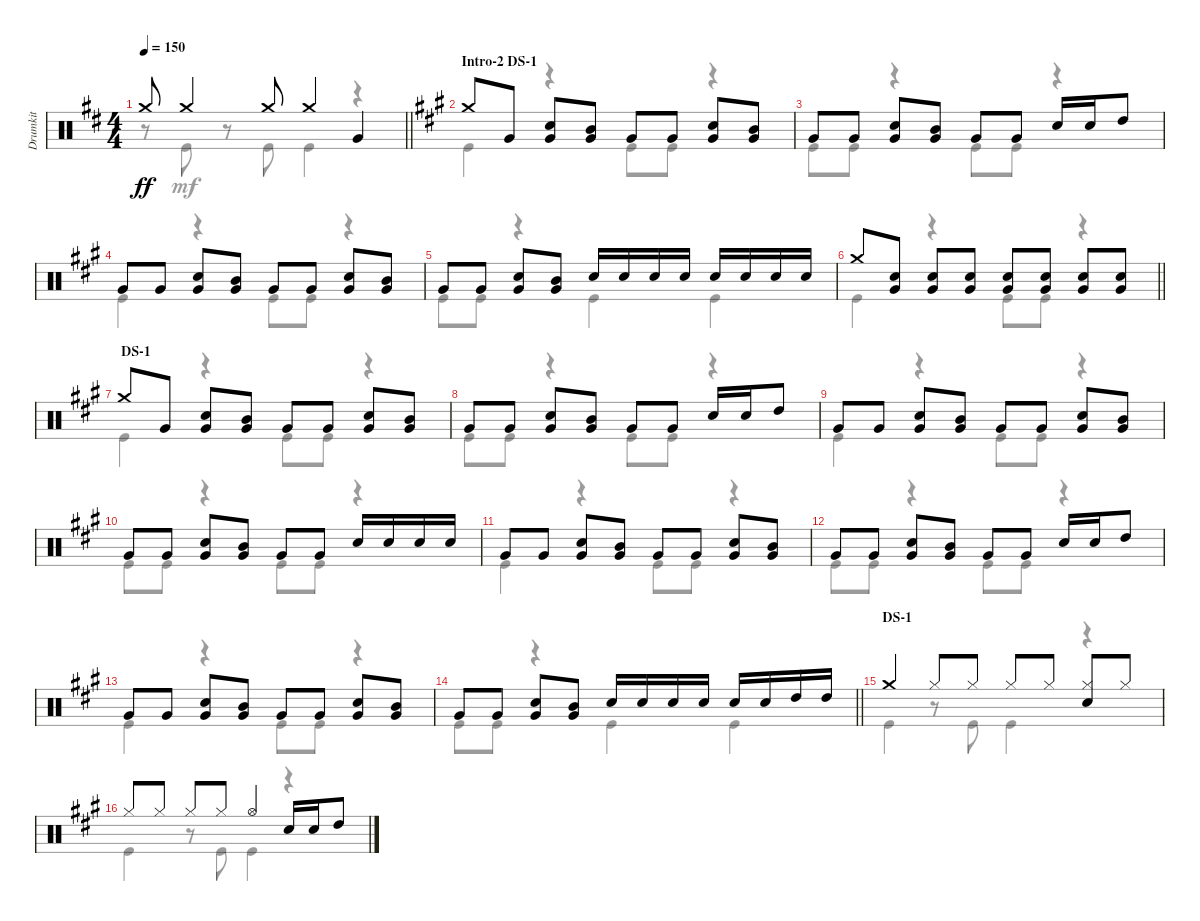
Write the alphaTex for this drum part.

\track ("Drumkit" "Drumkit") {instrument percussion}
\staff {score}
\articulation defaults
\voice
\ts (4 4)
\tempo 150
\clef neutral
\barLineRight lightlight
\ks d "Crash medium (hit)"{t}.8{dy ff} "Crash medium (hit)".4 "Crash medium (hit)".8 "Crash medium (hit)".4 "Very Low Tom (hit)".4
|
\section ("" "Intro-2 DS-1")
\ks a "Crash medium (hit)".8 "Very Low Tom (hit)".8
("Very Low Tom (hit)" "Snare (hit) 2").8 ("Very Low Tom (hit)" "Mid Tom (hit)").8 "Very Low Tom (hit)".8 "Very Low Tom (hit)".8 ("Very Low Tom (hit)" "Snare (hit) 2").8 ("Very Low Tom (hit)" "Mid Tom (hit)").8 |
"Very Low Tom (hit)".8 "Very Low Tom (hit)".8 ("Very Low Tom (hit)" "Snare (hit) 2").8 ("Very Low Tom (hit)" "Mid Tom (hit)").8 "Very Low Tom (hit)".8 "Very Low Tom (hit)".8 "Snare (hit) 2".16 "Snare (hit) 2".16 "High Tom (hit)".8 |
"Very Low Tom (hit)".8 "Very Low Tom (hit)".8 ("Very Low Tom (hit)" "Snare (hit) 2").8 ("Very Low Tom (hit)" "Mid Tom (hit)").8 "Very Low Tom (hit)".8 "Very Low Tom (hit)".8 ("Very Low Tom (hit)" "Snare (hit) 2").8 ("Very Low Tom (hit)" "Mid Tom (hit)").8 |
"Very Low Tom (hit)".8 "Very Low Tom (hit)".8 ("Very Low Tom (hit)" "Snare (hit) 2").8 ("Very Low Tom (hit)" "Mid Tom (hit)").8 "Snare (hit) 2".16 "Snare (hit) 2".16 "Snare (hit) 2".16 "Snare (hit) 2".16 "Snare (hit) 2".16 "Snare (hit) 2".16 "Snare (hit) 2".16 "Snare (hit) 2".16 |
\barLineRight lightlight "Crash medium (hit)".8
("Snare (hit) 2" "Very Low Tom (hit)").8 ("Snare (hit) 2" "Very Low Tom (hit)").8 ("Snare (hit) 2" "Very Low Tom (hit)").8 ("Snare (hit) 2" "Very Low Tom (hit)").8 ("Snare (hit) 2" "Very Low Tom (hit)").8 ("Snare (hit) 2" "Very Low Tom (hit)").8 ("Snare (hit) 2" "Very Low Tom (hit)").8 |
\section ("" " DS-1")
"Crash medium (hit)".8 "Very Low Tom (hit)".8 ("Very Low Tom (hit)" "Snare (hit) 2").8 ("Very Low Tom (hit)" "Mid Tom (hit)").8 "Very Low Tom (hit)".8 "Very Low Tom (hit)".8 ("Very Low Tom (hit)" "Snare (hit) 2").8 ("Very Low Tom (hit)" "Mid Tom (hit)").8 |
"Very Low Tom (hit)".8 "Very Low Tom (hit)".8 ("Very Low Tom (hit)" "Snare (hit) 2").8 ("Very Low Tom (hit)" "Mid Tom (hit)").8 "Very Low Tom (hit)".8 "Very Low Tom (hit)".8 "Snare (hit) 2".16 "Snare (hit) 2".16 "High Tom (hit)".8 |
"Very Low Tom (hit)".8 "Very Low Tom (hit)".8 ("Very Low Tom (hit)" "Snare (hit) 2").8 ("Very Low Tom (hit)" "Mid Tom (hit)").8 "Very Low Tom (hit)".8 "Very Low Tom (hit)".8 ("Very Low Tom (hit)" "Snare (hit) 2").8 ("Very Low Tom (hit)" "Mid Tom (hit)").8 |
"Very Low Tom (hit)".8 "Very Low Tom (hit)".8 ("Very Low Tom (hit)" "Snare (hit) 2").8 ("Very Low Tom (hit)" "Mid Tom (hit)").8 "Very Low Tom (hit)".8 "Very Low Tom (hit)".8 "Snare (hit) 2".16 "Snare (hit) 2".16 "Snare (hit) 2".16 "Snare (hit) 2".16 |
"Very Low Tom (hit)".8 "Very Low Tom (hit)".8 ("Very Low Tom (hit)" "Snare (hit) 2").8 ("Very Low Tom (hit)" "Mid Tom (hit)").8 "Very Low Tom (hit)".8 "Very Low Tom (hit)".8 ("Very Low Tom (hit)" "Snare (hit) 2").8 ("Very Low Tom (hit)" "Mid Tom (hit)").8 |
"Very Low Tom (hit)".8 "Very Low Tom (hit)".8 ("Very Low Tom (hit)" "Snare (hit) 2").8 ("Very Low Tom (hit)" "Mid Tom (hit)").8 "Very Low Tom (hit)".8 "Very Low Tom (hit)".8 "Snare (hit) 2".16 "Snare (hit) 2".16 "High Tom (hit)".8 |
"Very Low Tom (hit)".8 "Very Low Tom (hit)".8 ("Very Low Tom (hit)" "Snare (hit) 2").8 ("Very Low Tom (hit)" "Mid Tom (hit)").8 "Very Low Tom (hit)".8 "Very Low Tom (hit)".8 ("Very Low Tom (hit)" "Snare (hit) 2").8 ("Very Low Tom (hit)" "Mid Tom (hit)").8 |
\barLineRight lightlight "Very Low Tom (hit)".8 "Very Low Tom (hit)".8
("Very Low Tom (hit)" "Snare (hit) 2").8 ("Very Low Tom (hit)" "Mid Tom (hit)").8 "Snare (hit) 2".16 "Snare (hit) 2".16 "Snare (hit) 2".16 "Snare (hit) 2".16 "Snare (hit) 2".16 "Snare (hit) 2".16 "High Tom (hit)".16 "High Tom (hit)".16 |
\section ("" "DS-1")
"Crash medium (hit)".4 "Hi-Hat (closed)".8 "Hi-Hat (closed)".8 "Hi-Hat (closed)".8 "Hi-Hat (closed)".8 ("Hi-Hat (closed)" "Snare (hit) 2").8 "Hi-Hat (closed)".8 |
"Hi-Hat (closed)".8 "Hi-Hat (closed)".8 "Hi-Hat (closed)".8 "Hi-Hat (closed)".8 "Hi-Hat (open)".4 "Snare (hit) 2".16 "Snare (hit) 2".16 "High Tom (hit)".8
\voice
\clef neutral
\ottava regular
\simile none
\barLineRight lightlight
\ks d
r.8{dy mf} "Kick (hit)".8 r.8 "Kick (hit)".8 "Kick (hit)".4 r.4 |
\ks a "Kick (hit)".4
r.4 "Kick (hit)".8 "Kick (hit)".8 r.4 |
"Kick (hit)".8 "Kick (hit)".8 r.4 "Kick (hit)".8 "Kick (hit)".8 r.4 |
"Kick (hit)".4 r.4 "Kick (hit)".8 "Kick (hit)".8 r.4 |
"Kick (hit)".8 "Kick (hit)".8 r.4 "Kick (hit)".4 "Kick (hit)".4 |
\barLineRight lightlight "Kick (hit)".4
r.4 "Kick (hit)".8 "Kick (hit)".8 r.4 |
"Kick (hit)".4 r.4 "Kick (hit)".8 "Kick (hit)".8 r.4 |
"Kick (hit)".8 "Kick (hit)".8 r.4 "Kick (hit)".8 "Kick (hit)".8 r.4 |
"Kick (hit)".4 r.4 "Kick (hit)".8 "Kick (hit)".8 r.4 |
"Kick (hit)".8 "Kick (hit)".8 r.4 "Kick (hit)".8 "Kick (hit)".8 r.4 |
"Kick (hit)".4 r.4 "Kick (hit)".8 "Kick (hit)".8 r.4 |
"Kick (hit)".8 "Kick (hit)".8 r.4 "Kick (hit)".8 "Kick (hit)".8 r.4 |
"Kick (hit)".4 r.4 "Kick (hit)".8 "Kick (hit)".8 r.4 |
\barLineRight lightlight "Kick (hit)".8 "Kick (hit)".8
r.4 "Kick (hit)".4 "Kick (hit)".4 |
"Kick (hit)".4 r.8 "Kick (hit)".8 "Kick (hit)".4 r.4 |
"Kick (hit)".4 r.8 "Kick (hit)".8 "Kick (hit)".4 r.4
